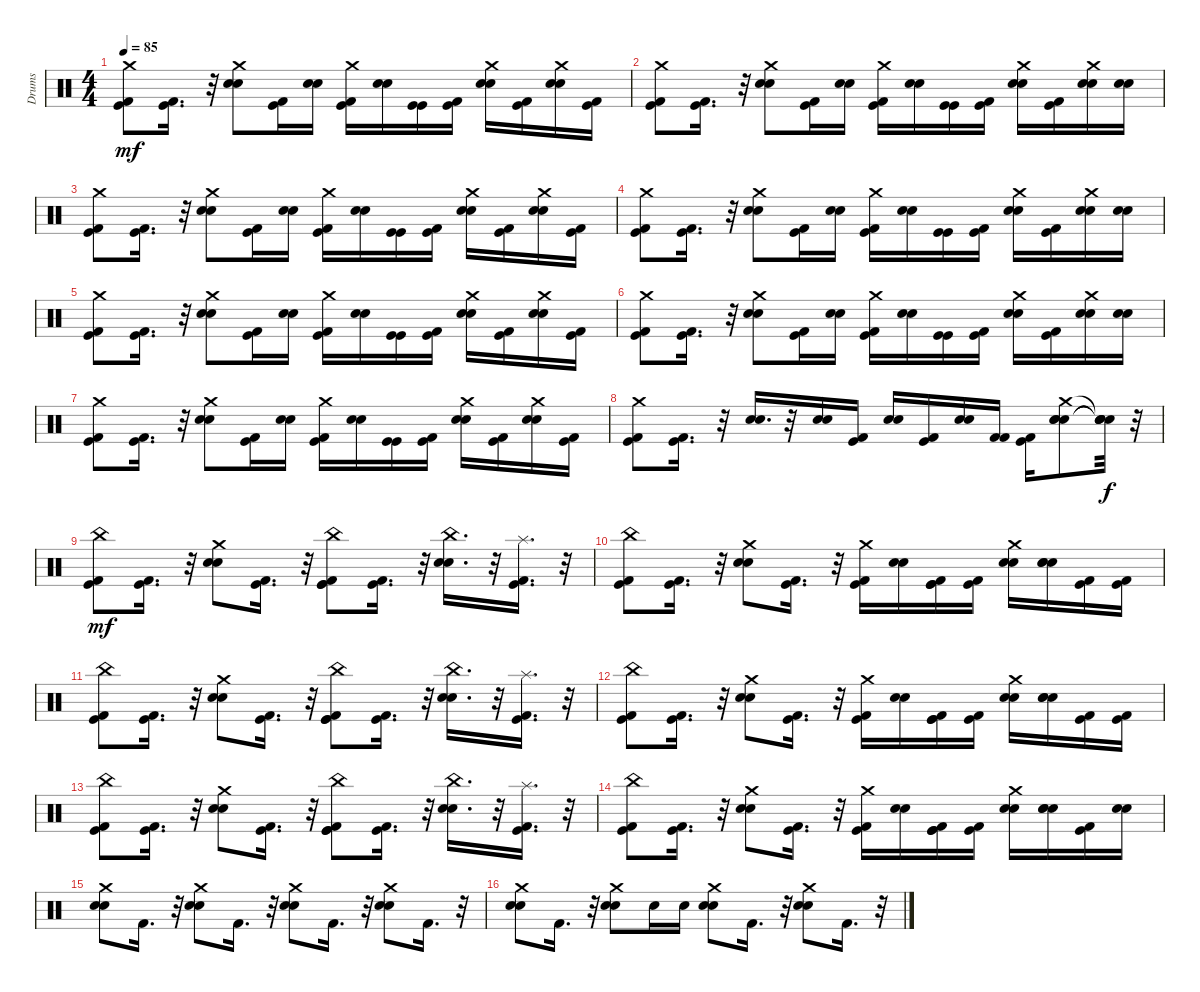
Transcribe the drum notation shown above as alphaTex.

\track ("Drums" "Drums") {instrument percussion}
\staff {score}
\articulation defaults
\ts (4 4)
\tempo 85
\clef neutral
\ks c
("Kick (hit) 2" "Kick (hit)" "Crash medium (hit)").8{dy mf} ("Kick (hit) 2" "Kick (hit)").16{d} r.32 ("Snare (hit) 2" "Electric Snare (hit)" "Crash medium (hit)").8 ("Kick (hit)" "Kick (hit) 2").16 ("Snare (hit) 2" "Electric Snare (hit)").16 ("Kick (hit) 2" "Kick (hit)" "Crash medium (hit)").16 ("Electric Snare (hit)" "Snare (hit) 2").16 ("Kick (hit)" "Kick (hit)").16 ("Kick (hit)" "Kick (hit) 2").16 ("Electric Snare (hit)" "Electric Snare (hit)" "Crash medium (hit)").16 ("Kick (hit)" "Kick (hit) 2").16 ("Electric Snare (hit)" "Electric Snare (hit)" "Crash medium (hit)").16 ("Kick (hit) 2" "Kick (hit)").16 |
("Kick (hit) 2" "Kick (hit)" "Crash medium (hit)").8 ("Kick (hit)" "Kick (hit) 2").16{d} r.32 ("Electric Snare (hit)" "Snare (hit) 2" "Crash medium (hit)").8 ("Kick (hit) 2" "Kick (hit)").16 ("Electric Snare (hit)" "Snare (hit) 2").16 ("Kick (hit) 2" "Kick (hit)" "Crash medium (hit)").16 ("Snare (hit) 2" "Electric Snare (hit)").16 ("Kick (hit)" "Kick (hit)").16 ("Kick (hit)" "Kick (hit) 2").16 ("Electric Snare (hit)" "Electric Snare (hit)" "Crash medium (hit)").16 ("Kick (hit)" "Kick (hit) 2").16 ("Electric Snare (hit)" "Electric Snare (hit)" "Crash medium (hit)").16 ("Snare (hit) 2" "Electric Snare (hit)").16 |
("Kick (hit) 2" "Kick (hit)" "Crash medium (hit)").8 ("Kick (hit)" "Kick (hit) 2").16{d} r.32 ("Snare (hit) 2" "Electric Snare (hit)" "Crash medium (hit)").8 ("Kick (hit)" "Kick (hit) 2").16 ("Snare (hit) 2" "Electric Snare (hit)").16 ("Kick (hit) 2" "Kick (hit)" "Crash medium (hit)").16 ("Electric Snare (hit)" "Snare (hit) 2").16 ("Kick (hit)" "Kick (hit)").16 ("Kick (hit)" "Kick (hit) 2").16 ("Electric Snare (hit)" "Electric Snare (hit)" "Crash medium (hit)").16 ("Kick (hit)" "Kick (hit) 2").16 ("Electric Snare (hit)" "Electric Snare (hit)" "Crash medium (hit)").16 ("Kick (hit)" "Kick (hit) 2").16 |
("Kick (hit) 2" "Kick (hit)" "Crash medium (hit)").8 ("Kick (hit)" "Kick (hit) 2").16{d} r.32 ("Electric Snare (hit)" "Snare (hit) 2" "Crash medium (hit)").8 ("Kick (hit)" "Kick (hit) 2").16 ("Snare (hit) 2" "Electric Snare (hit)").16 ("Kick (hit)" "Kick (hit) 2" "Crash medium (hit)").16 ("Electric Snare (hit)" "Snare (hit) 2").16 ("Kick (hit)" "Kick (hit)").16 ("Kick (hit)" "Kick (hit) 2").16 ("Electric Snare (hit)" "Electric Snare (hit)" "Crash medium (hit)").16 ("Kick (hit) 2" "Kick (hit)").16 ("Electric Snare (hit)" "Electric Snare (hit)" "Crash medium (hit)").16 ("Snare (hit) 2" "Electric Snare (hit)").16 |
("Kick (hit) 2" "Kick (hit)" "Crash medium (hit)").8 ("Kick (hit) 2" "Kick (hit)").16{d} r.32 ("Electric Snare (hit)" "Snare (hit) 2" "Crash medium (hit)").8 ("Kick (hit) 2" "Kick (hit)").16 ("Electric Snare (hit)" "Snare (hit) 2").16 ("Kick (hit) 2" "Kick (hit)" "Crash medium (hit)").16 ("Snare (hit) 2" "Electric Snare (hit)").16 ("Kick (hit)" "Kick (hit)").16 ("Kick (hit)" "Kick (hit) 2").16 ("Electric Snare (hit)" "Electric Snare (hit)" "Crash medium (hit)").16 ("Kick (hit) 2" "Kick (hit)").16 ("Electric Snare (hit)" "Electric Snare (hit)" "Crash medium (hit)").16 ("Kick (hit) 2" "Kick (hit)").16 |
("Kick (hit) 2" "Kick (hit)" "Crash medium (hit)").8 ("Kick (hit)" "Kick (hit) 2").16{d} r.32 ("Electric Snare (hit)" "Snare (hit) 2" "Crash medium (hit)").8 ("Kick (hit)" "Kick (hit) 2").16 ("Snare (hit) 2" "Electric Snare (hit)").16 ("Kick (hit) 2" "Kick (hit)" "Crash medium (hit)").16 ("Electric Snare (hit)" "Snare (hit) 2").16 ("Kick (hit)" "Kick (hit)").16 ("Kick (hit)" "Kick (hit) 2").16 ("Electric Snare (hit)" "Electric Snare (hit)" "Crash medium (hit)").16 ("Kick (hit) 2" "Kick (hit)").16 ("Electric Snare (hit)" "Electric Snare (hit)" "Crash medium (hit)").16 ("Electric Snare (hit)" "Snare (hit) 2").16 |
("Kick (hit)" "Kick (hit) 2" "Crash medium (hit)").8 ("Kick (hit)" "Kick (hit) 2").16{d} r.32 ("Snare (hit) 2" "Electric Snare (hit)" "Crash medium (hit)").8 ("Kick (hit)" "Kick (hit) 2").16 ("Electric Snare (hit)" "Snare (hit) 2").16 ("Kick (hit) 2" "Kick (hit)" "Crash medium (hit)").16 ("Electric Snare (hit)" "Snare (hit) 2").16 ("Kick (hit)" "Kick (hit)").16 ("Kick (hit) 2" "Kick (hit)").16 ("Electric Snare (hit)" "Electric Snare (hit)" "Crash medium (hit)").16 ("Kick (hit) 2" "Kick (hit)").16 ("Electric Snare (hit)" "Electric Snare (hit)" "Crash medium (hit)").16 ("Kick (hit) 2" "Kick (hit)").16 |
("Kick (hit)" "Kick (hit) 2" "Crash medium (hit)").8 ("Kick (hit)" "Kick (hit) 2").16{d} r.32 ("Snare (hit) 2" "Electric Snare (hit)").16{d} r.32 ("Electric Snare (hit)" "Snare (hit) 2").16 ("Kick (hit) 2" "Kick (hit)").16 ("Snare (hit) 2" "Electric Snare (hit)").16 ("Kick (hit)" "Kick (hit) 2").16 ("Snare (hit) 2" "Electric Snare (hit)").16 ("Kick (hit) 2" "Kick (hit) 2").16 ("Kick (hit)" "Kick (hit) 2").16 ("Snare (hit) 2" "Electric Snare (hit)" "Electric Snare (hit)" "Crash medium (hit)").8 ("Snare (hit)"{t} "Snare (hit)"{t} "Snare (hit)"{t} "Snare (hit)"{t}).32{dy f} r.32 |
("Kick (hit)" "Kick (hit) 2" "China (hit)").8{dy mf} ("Kick (hit) 2" "Kick (hit)").16{d} r.32 ("Snare (hit) 2" "Electric Snare (hit)" "Crash medium (hit)").8 ("Kick (hit)" "Kick (hit) 2").16{d} r.32 ("Kick (hit)" "Kick (hit) 2" "Kick (hit)" "China (hit)").8 ("Kick (hit)" "Kick (hit) 2").16{d} r.32 ("Electric Snare (hit)" "Snare (hit) 2" "China (hit)").16{d} r.32 ("Kick (hit) 2" "Kick (hit)" "Splash (hit)").16{d} r.32 |
("Kick (hit)" "Kick (hit) 2" "China (hit)").8 ("Kick (hit)" "Kick (hit) 2").16{d} r.32 ("Snare (hit) 2" "Electric Snare (hit)" "Crash medium (hit)").8 ("Kick (hit) 2" "Kick (hit)").16{d} r.32 ("Kick (hit)" "Kick (hit) 2" "Crash medium (hit)").16 ("Electric Snare (hit)" "Snare (hit) 2").16 ("Kick (hit)" "Kick (hit) 2" "Kick (hit)").16 ("Kick (hit)" "Kick (hit) 2").16 ("Snare (hit) 2" "Electric Snare (hit)" "Crash medium (hit)").16 ("Electric Snare (hit)" "Snare (hit) 2" "Electric Snare (hit)").16 ("Kick (hit) 2" "Kick (hit)").16 ("Kick (hit) 2" "Kick (hit)").16 |
("Kick (hit)" "Kick (hit) 2" "China (hit)").8 ("Kick (hit)" "Kick (hit) 2").16{d} r.32 ("Snare (hit) 2" "Electric Snare (hit)" "Crash medium (hit)").8 ("Kick (hit) 2" "Kick (hit)").16{d} r.32 ("Kick (hit) 2" "Kick (hit)" "Kick (hit)" "China (hit)").8 ("Kick (hit)" "Kick (hit) 2").16{d} r.32 ("Electric Snare (hit)" "Snare (hit) 2" "China (hit)").16{d} r.32 ("Kick (hit)" "Kick (hit) 2" "Splash (hit)").16{d} r.32 |
("Kick (hit)" "Kick (hit) 2" "China (hit)").8 ("Kick (hit) 2" "Kick (hit)").16{d} r.32 ("Electric Snare (hit)" "Snare (hit) 2" "Crash medium (hit)").8 ("Kick (hit) 2" "Kick (hit)").16{d} r.32 ("Kick (hit) 2" "Kick (hit)" "Crash medium (hit)").16 ("Electric Snare (hit)" "Snare (hit) 2").16 ("Kick (hit)" "Kick (hit) 2" "Kick (hit)").16 ("Kick (hit) 2" "Kick (hit)").16 ("Electric Snare (hit)" "Snare (hit) 2" "Crash medium (hit)").16 ("Electric Snare (hit)" "Snare (hit) 2" "Electric Snare (hit)").16 ("Kick (hit)" "Kick (hit) 2").16 ("Kick (hit) 2" "Kick (hit)").16 |
("Kick (hit)" "Kick (hit) 2" "China (hit)").8 ("Kick (hit)" "Kick (hit) 2").16{d} r.32 ("Electric Snare (hit)" "Snare (hit) 2" "Crash medium (hit)").8 ("Kick (hit)" "Kick (hit) 2").16{d} r.32 ("Kick (hit)" "Kick (hit)" "Kick (hit) 2" "China (hit)").8 ("Kick (hit) 2" "Kick (hit)").16{d} r.32 ("Electric Snare (hit)" "Snare (hit) 2" "China (hit)").16{d} r.32 ("Kick (hit) 2" "Kick (hit)" "Splash (hit)").16{d} r.32 |
("Kick (hit)" "Kick (hit) 2" "China (hit)").8 ("Kick (hit)" "Kick (hit) 2").16{d} r.32 ("Snare (hit) 2" "Electric Snare (hit)" "Crash medium (hit)").8 ("Kick (hit) 2" "Kick (hit)").16{d} r.32 ("Kick (hit)" "Kick (hit) 2" "Crash medium (hit)").16 ("Snare (hit) 2" "Electric Snare (hit)").16 ("Kick (hit) 2" "Kick (hit)" "Kick (hit)").16 ("Kick (hit)" "Kick (hit) 2").16 ("Snare (hit) 2" "Electric Snare (hit)" "Crash medium (hit)").16 ("Electric Snare (hit)" "Snare (hit) 2" "Electric Snare (hit)").16 ("Kick (hit)" "Kick (hit) 2").16 ("Electric Snare (hit)" "Snare (hit) 2").16 |
("Electric Snare (hit)" "Snare (hit) 2" "Crash medium (hit)").8 "Kick (hit) 2".16{d} r.32 ("Electric Snare (hit)" "Snare (hit) 2" "Crash medium (hit)").8 "Kick (hit) 2".16{d} r.32 ("Snare (hit) 2" "Electric Snare (hit)" "Crash medium (hit)").8 "Kick (hit) 2".16{d} r.32 ("Electric Snare (hit)" "Snare (hit) 2" "Crash medium (hit)").8 "Kick (hit) 2".16{d} r.32 |
("Snare (hit) 2" "Electric Snare (hit)" "Crash medium (hit)").8 "Kick (hit) 2".16{d} r.32 ("Snare (hit) 2" "Electric Snare (hit)" "Crash medium (hit)").8 "Electric Snare (hit)".16 "Snare (hit) 2".16 ("Electric Snare (hit)" "Snare (hit) 2" "Crash medium (hit)").8 "Kick (hit) 2".16{d} r.32 ("Electric Snare (hit)" "Snare (hit) 2" "Crash medium (hit)").8 "Kick (hit) 2".16{d} r.32
